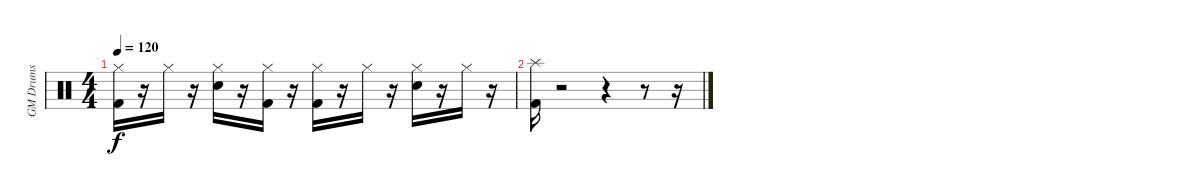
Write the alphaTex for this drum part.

\track ("GM Drums" "GM Drums") {instrument percussion}
\staff {score}
\articulation defaults
\ts (4 4)
\tempo 120
\clef neutral
\ks c
("Kick (hit) 2" "Hi-Hat (closed)").16{dy f} r.16 "Hi-Hat (closed)".16 r.16 ("Snare (hit) 2" "Hi-Hat (closed)").16 r.16 ("Kick (hit) 2" "Hi-Hat (closed)").16 r.16 ("Kick (hit) 2" "Hi-Hat (closed)").16 r.16 "Hi-Hat (closed)".16 r.16 ("Snare (hit) 2" "Hi-Hat (closed)").16 r.16 "Hi-Hat (closed)".16 r.16 |
("Kick (hit) 2" "Splash (hit)").16 r.2 r.4 r.8 r.16
